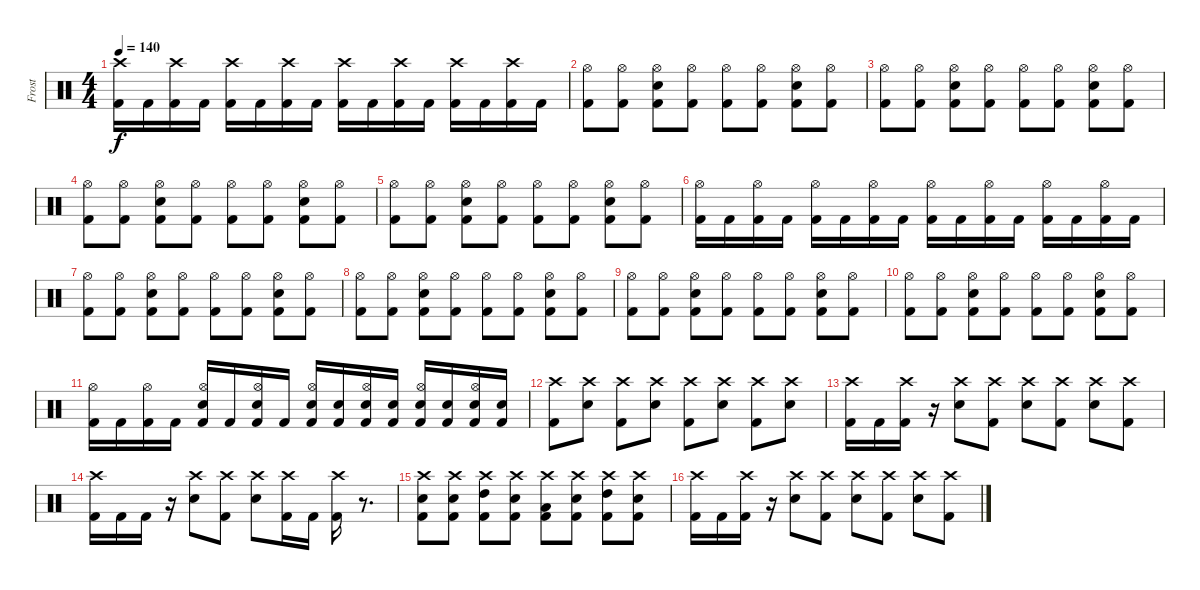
\track ("Frost" "Frost") {instrument percussion}
\staff {score}
\articulation defaults
\ts (4 4)
\tempo 140
\clef neutral
\ks c
("Crash high (hit)" "Kick (hit) 2").16{dy f} "Kick (hit) 2".16 ("Crash high (hit)" "Kick (hit) 2").16 "Kick (hit) 2".16 ("Crash high (hit)" "Kick (hit) 2").16 "Kick (hit) 2".16 ("Crash high (hit)" "Kick (hit) 2").16 "Kick (hit) 2".16 ("Crash high (hit)" "Kick (hit) 2").16 "Kick (hit) 2".16 ("Crash high (hit)" "Kick (hit) 2").16 "Kick (hit) 2".16 ("Crash high (hit)" "Kick (hit) 2").16 "Kick (hit) 2".16 ("Crash high (hit)" "Kick (hit) 2").16 "Kick (hit) 2".16 |
("Hi-Hat (open)" "Kick (hit) 2").8 ("Hi-Hat (open)" "Kick (hit) 2").8 ("Hi-Hat (open)" "Kick (hit) 2" "Snare (hit) 2").8 ("Hi-Hat (open)" "Kick (hit) 2").8 ("Hi-Hat (open)" "Kick (hit) 2").8 ("Hi-Hat (open)" "Kick (hit) 2").8 ("Hi-Hat (open)" "Kick (hit) 2" "Snare (hit) 2").8 ("Hi-Hat (open)" "Kick (hit) 2").8 |
("Hi-Hat (open)" "Kick (hit) 2").8 ("Hi-Hat (open)" "Kick (hit) 2").8 ("Hi-Hat (open)" "Kick (hit) 2" "Snare (hit) 2").8 ("Hi-Hat (open)" "Kick (hit) 2").8 ("Hi-Hat (open)" "Kick (hit) 2").8 ("Hi-Hat (open)" "Kick (hit) 2").8 ("Hi-Hat (open)" "Kick (hit) 2" "Snare (hit) 2").8 ("Hi-Hat (open)" "Kick (hit) 2").8 |
("Hi-Hat (open)" "Kick (hit) 2").8 ("Hi-Hat (open)" "Kick (hit) 2").8 ("Hi-Hat (open)" "Kick (hit) 2" "Snare (hit) 2").8 ("Hi-Hat (open)" "Kick (hit) 2").8 ("Hi-Hat (open)" "Kick (hit) 2").8 ("Hi-Hat (open)" "Kick (hit) 2").8 ("Hi-Hat (open)" "Kick (hit) 2" "Snare (hit) 2").8 ("Hi-Hat (open)" "Kick (hit) 2").8 |
("Hi-Hat (open)" "Kick (hit) 2").8 ("Hi-Hat (open)" "Kick (hit) 2").8 ("Hi-Hat (open)" "Kick (hit) 2" "Snare (hit) 2").8 ("Hi-Hat (open)" "Kick (hit) 2").8 ("Hi-Hat (open)" "Kick (hit) 2").8 ("Hi-Hat (open)" "Kick (hit) 2").8 ("Hi-Hat (open)" "Kick (hit) 2" "Snare (hit) 2").8 ("Hi-Hat (open)" "Kick (hit) 2").8 |
("Hi-Hat (open)" "Kick (hit) 2").16 "Kick (hit) 2".16 ("Hi-Hat (open)" "Kick (hit) 2").16 "Kick (hit) 2".16 ("Hi-Hat (open)" "Kick (hit) 2").16 "Kick (hit) 2".16 ("Hi-Hat (open)" "Kick (hit) 2").16 "Kick (hit) 2".16 ("Hi-Hat (open)" "Kick (hit) 2").16 "Kick (hit) 2".16 ("Hi-Hat (open)" "Kick (hit) 2").16 "Kick (hit) 2".16 ("Hi-Hat (open)" "Kick (hit) 2").16 "Kick (hit) 2".16 ("Hi-Hat (open)" "Kick (hit) 2").16 "Kick (hit) 2".16 |
("Hi-Hat (open)" "Kick (hit) 2").8 ("Hi-Hat (open)" "Kick (hit) 2").8 ("Hi-Hat (open)" "Kick (hit) 2" "Snare (hit) 2").8 ("Hi-Hat (open)" "Kick (hit) 2").8 ("Hi-Hat (open)" "Kick (hit) 2").8 ("Hi-Hat (open)" "Kick (hit) 2").8 ("Hi-Hat (open)" "Kick (hit) 2" "Snare (hit) 2").8 ("Hi-Hat (open)" "Kick (hit) 2").8 |
("Hi-Hat (open)" "Kick (hit) 2").8 ("Hi-Hat (open)" "Kick (hit) 2").8 ("Hi-Hat (open)" "Kick (hit) 2" "Snare (hit) 2").8 ("Hi-Hat (open)" "Kick (hit) 2").8 ("Hi-Hat (open)" "Kick (hit) 2").8 ("Hi-Hat (open)" "Kick (hit) 2").8 ("Hi-Hat (open)" "Kick (hit) 2" "Snare (hit) 2").8 ("Hi-Hat (open)" "Kick (hit) 2").8 |
("Hi-Hat (open)" "Kick (hit) 2").8 ("Hi-Hat (open)" "Kick (hit) 2").8 ("Hi-Hat (open)" "Kick (hit) 2" "Snare (hit) 2").8 ("Hi-Hat (open)" "Kick (hit) 2").8 ("Hi-Hat (open)" "Kick (hit) 2").8 ("Hi-Hat (open)" "Kick (hit) 2").8 ("Hi-Hat (open)" "Kick (hit) 2" "Snare (hit) 2").8 ("Hi-Hat (open)" "Kick (hit) 2").8 |
("Hi-Hat (open)" "Kick (hit) 2").8 ("Hi-Hat (open)" "Kick (hit) 2").8 ("Hi-Hat (open)" "Kick (hit) 2" "Snare (hit) 2").8 ("Hi-Hat (open)" "Kick (hit) 2").8 ("Hi-Hat (open)" "Kick (hit) 2").8 ("Hi-Hat (open)" "Kick (hit) 2").8 ("Hi-Hat (open)" "Kick (hit) 2" "Snare (hit) 2").8 ("Hi-Hat (open)" "Kick (hit) 2").8 |
("Hi-Hat (open)" "Kick (hit) 2").16 "Kick (hit) 2".16 ("Hi-Hat (open)" "Kick (hit) 2").16 "Kick (hit) 2".16 ("Hi-Hat (open)" "Snare (hit) 2" "Kick (hit) 2").16 "Kick (hit) 2".16 ("Hi-Hat (open)" "Snare (hit) 2" "Kick (hit) 2").16 "Kick (hit) 2".16 ("Hi-Hat (open)" "Snare (hit) 2" "Kick (hit) 2").16 ("Snare (hit) 2" "Kick (hit) 2").16 ("Hi-Hat (open)" "Snare (hit) 2" "Kick (hit) 2").16 ("Snare (hit) 2" "Kick (hit) 2").16 ("Hi-Hat (open)" "Snare (hit) 2" "Kick (hit) 2").16 ("Snare (hit) 2" "Kick (hit) 2").16 ("Hi-Hat (open)" "Snare (hit) 2" "Kick (hit) 2").16 ("Snare (hit) 2" "Kick (hit) 2").16 |
("Crash high (hit)" "Kick (hit) 2").8 ("Crash high (hit)" "Snare (hit) 2").8 ("Crash high (hit)" "Kick (hit) 2").8 ("Crash high (hit)" "Snare (hit) 2").8 ("Crash high (hit)" "Kick (hit) 2").8 ("Crash high (hit)" "Snare (hit) 2").8 ("Crash high (hit)" "Kick (hit) 2").8 ("Crash high (hit)" "Snare (hit) 2").8 |
("Crash high (hit)" "Kick (hit) 2").16 "Kick (hit) 2".16 ("Crash high (hit)" "Kick (hit) 2").16 r.16 ("Crash high (hit)" "Snare (hit) 2").8 ("Crash high (hit)" "Kick (hit) 2").8 ("Crash high (hit)" "Snare (hit) 2").8 ("Crash high (hit)" "Kick (hit) 2").8 ("Crash high (hit)" "Snare (hit) 2").8 ("Crash high (hit)" "Kick (hit) 2").8 |
("Crash high (hit)" "Kick (hit) 2").16 "Kick (hit) 2".16 "Kick (hit) 2".16 r.16 ("Crash high (hit)" "Snare (hit) 2").8 ("Crash high (hit)" "Kick (hit) 2").8 ("Crash high (hit)" "Snare (hit) 2").8 ("Crash high (hit)" "Kick (hit) 2").16 "Kick (hit) 2".16 ("Crash high (hit)" "Kick (hit) 2").16 r.8{d} |
("Crash high (hit)" "Snare (hit) 2" "Kick (hit) 2").8 ("Crash high (hit)" "Snare (hit) 2" "Kick (hit) 2").8 ("Crash high (hit)" "High Tom (hit)" "Kick (hit) 2").8 ("Crash high (hit)" "Snare (hit) 2" "Kick (hit) 2").8 ("Crash high (hit)" "Low Tom (hit)" "Kick (hit) 2").8 ("Crash high (hit)" "Snare (hit) 2" "Kick (hit) 2").8 ("Crash high (hit)" "High Tom (hit)" "Kick (hit) 2").8 ("Crash high (hit)" "Snare (hit) 2" "Kick (hit) 2").8 |
("Crash high (hit)" "Kick (hit) 2").16 "Kick (hit) 2".16 ("Crash high (hit)" "Kick (hit) 2").16 r.16 ("Crash high (hit)" "Snare (hit) 2").8 ("Crash high (hit)" "Kick (hit) 2").8 ("Crash high (hit)" "Snare (hit) 2").8 ("Crash high (hit)" "Kick (hit) 2").8 ("Crash high (hit)" "Snare (hit) 2").8 ("Crash high (hit)" "Kick (hit) 2").8
